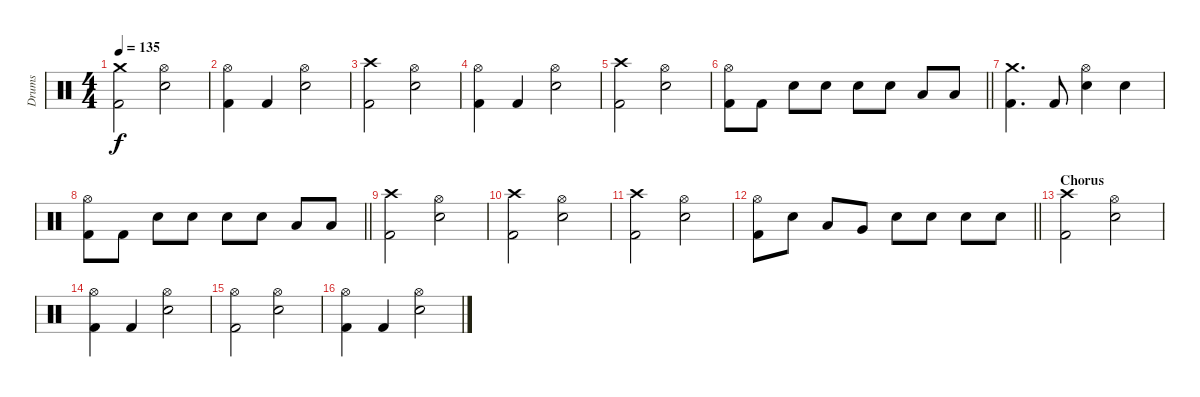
\track ("Drums" "Drums") {instrument percussion}
\staff {score}
\articulation defaults
\ts (4 4)
\tempo 135
\clef neutral
\ks c
("Crash medium (hit)" "Kick (hit) 2").2{dy f} ("Hi-Hat (open)" "Electric Snare (hit)").2 |
("Hi-Hat (open)" "Kick (hit) 2").4 "Kick (hit) 2".4 ("Hi-Hat (open)" "Electric Snare (hit)").2 |
("Crash high (hit)" "Kick (hit) 2").2 ("Hi-Hat (open)" "Electric Snare (hit)").2 |
("Hi-Hat (open)" "Kick (hit) 2").4 "Kick (hit) 2".4 ("Hi-Hat (open)" "Electric Snare (hit)").2 |
("Crash high (hit)" "Kick (hit) 2").2 ("Hi-Hat (open)" "Electric Snare (hit)").2 |
\barLineRight lightlight
("Hi-Hat (open)" "Kick (hit) 2").8 "Kick (hit) 2".8 "Electric Snare (hit)".8 "Electric Snare (hit)".8 "Electric Snare (hit)".8 "Electric Snare (hit)".8 "Low Tom (hit)".8 "Low Tom (hit)".8 |
("Crash medium (hit)" "Kick (hit) 2").4{d} "Kick (hit) 2".8 ("Electric Snare (hit)" "Hi-Hat (open)").4 "Electric Snare (hit)".4 |
\barLineRight lightlight
("Hi-Hat (open)" "Kick (hit) 2").8 "Kick (hit) 2".8 "Electric Snare (hit)".8 "Electric Snare (hit)".8 "Electric Snare (hit)".8 "Electric Snare (hit)".8 "Low Tom (hit)".8 "Low Tom (hit)".8 |
("Crash high (hit)" "Kick (hit) 2").2 ("Hi-Hat (open)" "Electric Snare (hit)").2 |
("Crash high (hit)" "Kick (hit) 2").2 ("Hi-Hat (open)" "Electric Snare (hit)").2 |
("Crash high (hit)" "Kick (hit) 2").2 ("Hi-Hat (open)" "Electric Snare (hit)").2 |
\barLineRight lightlight
("Hi-Hat (open)" "Kick (hit) 2").8 "Electric Snare (hit)".8 "Low Tom (hit)".8 "Very Low Tom (hit)".8 "Electric Snare (hit)".8 "Electric Snare (hit)".8 "Electric Snare (hit)".8 "Electric Snare (hit)".8 |
\section ("" "Chorus")
("Crash high (hit)" "Kick (hit) 2").2 ("Hi-Hat (open)" "Electric Snare (hit)").2 |
("Hi-Hat (open)" "Kick (hit) 2").4 "Kick (hit) 2".4 ("Hi-Hat (open)" "Electric Snare (hit)").2 |
("Hi-Hat (open)" "Kick (hit) 2").2 ("Hi-Hat (open)" "Electric Snare (hit)").2 |
("Hi-Hat (open)" "Kick (hit) 2").4 "Kick (hit) 2".4 ("Hi-Hat (open)" "Electric Snare (hit)").2
